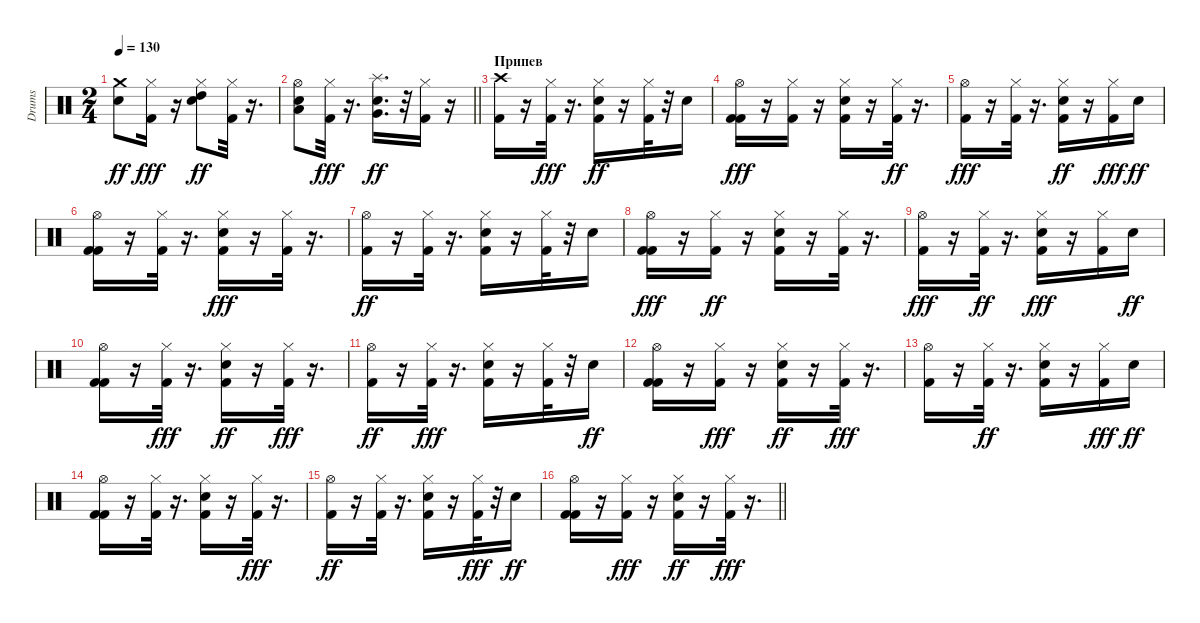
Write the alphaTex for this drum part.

\track ("Drums" "Drums") {solo instrument percussion}
\staff {score}
\articulation defaults
\ts (2 4)
\tempo 130
\clef neutral
\ks c
("Snare (hit) 2" "Crash medium (hit)").8{dy ff} ("Kick (hit) 2" "Hi-Hat (closed)").16{dy fff} r.16 ("High Tom (hit)" "Hi-Hat (closed)" "Snare (hit) 2").8{dy ff} ("Hi-Hat (closed)" "Kick (hit) 2").32 r.16{d} |
\barLineRight lightlight
("Low Tom (hit)" "Hi-Hat (open)" "Snare (hit) 2").8 ("Kick (hit) 2" "Hi-Hat (closed)").32{dy fff} r.16{d} ("Very Low Tom (hit)" "Splash (hit)" "Snare (hit) 2").16{d dy ff} r.32 ("Hi-Hat (closed)" "Kick (hit) 2").16 r.16 |
\section ("" "Припев")
("Crash high (hit)" "Kick (hit) 2").16 r.16 ("Kick (hit) 2" "Hi-Hat (closed)").32{dy fff} r.16{d} ("Hi-Hat (closed)" "Kick (hit) 2" "Snare (hit) 2").16{dy ff} r.16 ("Hi-Hat (closed)" "Kick (hit) 2").32 r.32 "Snare (hit) 2".16 |
("Kick (hit) 2" "Kick (hit) 2" "Hi-Hat (open)").16{dy fff} r.16 ("Kick (hit) 2" "Hi-Hat (closed)").16 r.16 ("Kick (hit) 2" "Snare (hit) 2" "Hi-Hat (closed)").16 r.16 ("Hi-Hat (closed)" "Kick (hit) 2").32{dy ff} r.16{d} |
("Kick (hit) 2" "Hi-Hat (open)").16{dy fff} r.16 ("Kick (hit) 2" "Hi-Hat (closed)").32 r.16{d} ("Snare (hit) 2" "Hi-Hat (closed)" "Kick (hit) 2").16{dy ff} r.16 ("Kick (hit) 2" "Hi-Hat (closed)").16{dy fff} "Snare (hit) 2".16{dy ff} |
("Kick (hit) 2" "Hi-Hat (open)" "Kick (hit) 2").16 r.16 ("Hi-Hat (closed)" "Kick (hit) 2").32 r.16{d} ("Snare (hit) 2" "Kick (hit) 2" "Hi-Hat (closed)").16{dy fff} r.16 ("Kick (hit) 2" "Hi-Hat (closed)").32 r.16{d} |
("Hi-Hat (open)" "Kick (hit) 2").16{dy ff} r.16 ("Hi-Hat (closed)" "Kick (hit) 2").32 r.16{d} ("Hi-Hat (closed)" "Snare (hit) 2" "Kick (hit) 2").16 r.16 ("Hi-Hat (closed)" "Kick (hit) 2").32 r.32 "Snare (hit) 2".16 |
("Kick (hit) 2" "Kick (hit) 2" "Hi-Hat (open)").16{dy fff} r.16 ("Hi-Hat (closed)" "Kick (hit) 2").16{dy ff} r.16 ("Snare (hit) 2" "Hi-Hat (closed)" "Kick (hit) 2").16 r.16 ("Hi-Hat (closed)" "Kick (hit) 2").32 r.16{d} |
("Kick (hit) 2" "Hi-Hat (open)").16{dy fff} r.16 ("Hi-Hat (closed)" "Kick (hit) 2").32{dy ff} r.16{d} ("Kick (hit) 2" "Snare (hit) 2" "Hi-Hat (closed)").16{dy fff} r.16 ("Kick (hit) 2" "Hi-Hat (closed)").16 "Snare (hit) 2".16{dy ff} |
("Kick (hit) 2" "Hi-Hat (open)" "Kick (hit) 2").16 r.16 ("Kick (hit) 2" "Hi-Hat (closed)").32{dy fff} r.16{d} ("Hi-Hat (closed)" "Kick (hit) 2" "Snare (hit) 2").16{dy ff} r.16 ("Kick (hit) 2" "Hi-Hat (closed)").32{dy fff} r.16{d} |
("Hi-Hat (open)" "Kick (hit) 2").16{dy ff} r.16 ("Kick (hit) 2" "Hi-Hat (closed)").32{dy fff} r.16{d} ("Snare (hit) 2" "Kick (hit) 2" "Hi-Hat (closed)").16 r.16 ("Kick (hit) 2" "Hi-Hat (closed)").32 r.32 "Snare (hit) 2".16{dy ff} |
("Hi-Hat (open)" "Kick (hit) 2" "Kick (hit) 2").16 r.16 ("Kick (hit) 2" "Hi-Hat (closed)").16{dy fff} r.16 ("Snare (hit) 2" "Hi-Hat (closed)" "Kick (hit) 2").16{dy ff} r.16 ("Kick (hit) 2" "Hi-Hat (closed)").32{dy fff} r.16{d} |
("Kick (hit) 2" "Hi-Hat (open)").16 r.16 ("Hi-Hat (closed)" "Kick (hit) 2").32{dy ff} r.16{d} ("Snare (hit) 2" "Hi-Hat (closed)" "Kick (hit) 2").16 r.16 ("Kick (hit) 2" "Hi-Hat (closed)").16{dy fff} "Snare (hit) 2".16{dy ff} |
("Hi-Hat (open)" "Kick (hit) 2" "Kick (hit) 2").16 r.16 ("Hi-Hat (closed)" "Kick (hit) 2").32 r.16{d} ("Hi-Hat (closed)" "Kick (hit) 2" "Snare (hit) 2").16 r.16 ("Kick (hit) 2" "Hi-Hat (closed)").32{dy fff} r.16{d} |
("Hi-Hat (open)" "Kick (hit) 2").16{dy ff} r.16 ("Hi-Hat (closed)" "Kick (hit) 2").32 r.16{d} ("Hi-Hat (closed)" "Snare (hit) 2" "Kick (hit) 2").16 r.16 ("Kick (hit) 2" "Hi-Hat (closed)").32{dy fff} r.32 "Snare (hit) 2".16{dy ff} |
\barLineRight lightlight
("Kick (hit) 2" "Hi-Hat (open)" "Kick (hit) 2").16 r.16 ("Kick (hit) 2" "Hi-Hat (closed)").16{dy fff} r.16 ("Snare (hit) 2" "Hi-Hat (closed)" "Kick (hit) 2").16{dy ff} r.16 ("Kick (hit) 2" "Hi-Hat (closed)").32{dy fff} r.16{d}
